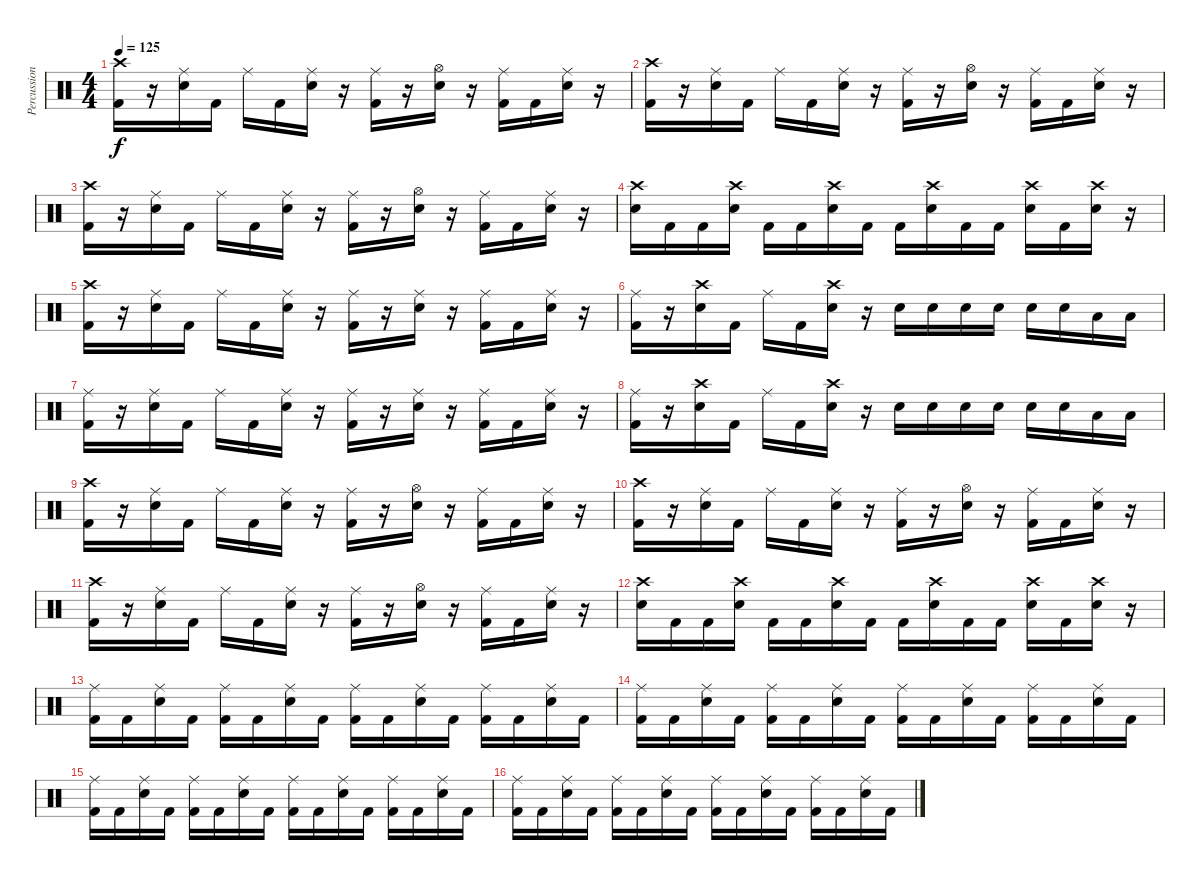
\track ("Percussion" "Percussion") {instrument percussion}
\staff {score}
\articulation defaults
\ts (4 4)
\tempo 125
\clef neutral
\ks c
("Kick (hit) 2" "Crash high (hit)").16{dy f} r.16 ("Snare (hit) 2" "Ride (middle)").16 "Kick (hit) 2".16 "Ride (middle)".16 "Kick (hit) 2".16 ("Snare (hit) 2" "Ride (middle)").16 r.16 ("Kick (hit) 2" "Ride (middle)").16 r.16 ("Snare (hit) 2" "Hi-Hat (open)").16 r.16 ("Kick (hit) 2" "Ride (middle)").16 "Kick (hit) 2".16 ("Snare (hit) 2" "Ride (middle)").16 r.16 |
("Kick (hit) 2" "Crash high (hit)").16 r.16 ("Snare (hit) 2" "Ride (middle)").16 "Kick (hit) 2".16 "Ride (middle)".16 "Kick (hit) 2".16 ("Snare (hit) 2" "Ride (middle)").16 r.16 ("Kick (hit) 2" "Ride (middle)").16 r.16 ("Snare (hit) 2" "Hi-Hat (open)").16 r.16 ("Kick (hit) 2" "Ride (middle)").16 "Kick (hit) 2".16 ("Snare (hit) 2" "Ride (middle)").16 r.16 |
("Kick (hit) 2" "Crash high (hit)").16 r.16 ("Snare (hit) 2" "Ride (middle)").16 "Kick (hit) 2".16 "Ride (middle)".16 "Kick (hit) 2".16 ("Snare (hit) 2" "Ride (middle)").16 r.16 ("Kick (hit) 2" "Ride (middle)").16 r.16 ("Snare (hit) 2" "Hi-Hat (open)").16 r.16 ("Kick (hit) 2" "Ride (middle)").16 "Kick (hit) 2".16 ("Snare (hit) 2" "Ride (middle)").16 r.16 |
("Snare (hit) 2" "Crash high (hit)").16 "Kick (hit) 2".16 "Kick (hit) 2".16 ("Snare (hit) 2" "Crash high (hit)").16 "Kick (hit) 2".16 "Kick (hit) 2".16 ("Snare (hit) 2" "Crash high (hit)").16 "Kick (hit) 2".16 "Kick (hit) 2".16 ("Snare (hit) 2" "Crash high (hit)").16 "Kick (hit) 2".16 "Kick (hit) 2".16 ("Snare (hit) 2" "Crash high (hit)").16 "Kick (hit) 2".16 ("Snare (hit) 2" "Crash high (hit)").16 r.16 |
("Kick (hit) 2" "Crash high (hit)").16 r.16 ("Snare (hit) 2" "Ride (middle)").16 "Kick (hit) 2".16 "Ride (middle)".16 "Kick (hit) 2".16 ("Snare (hit) 2" "Ride (middle)").16 r.16 ("Kick (hit) 2" "Ride (middle)").16 r.16 ("Snare (hit) 2" "Ride (middle)").16 r.16 ("Kick (hit) 2" "Ride (middle)").16 "Kick (hit) 2".16 ("Snare (hit) 2" "Ride (middle)").16 r.16 |
("Kick (hit) 2" "Ride (middle)").16 r.16 ("Snare (hit) 2" "Crash high (hit)").16 "Kick (hit) 2".16 "Ride (middle)".16 "Kick (hit) 2".16 ("Snare (hit) 2" "Crash high (hit)").16 r.16 "Snare (hit) 2".16 "Snare (hit) 2".16 "Snare (hit) 2".16 "Snare (hit) 2".16 "Snare (hit) 2".16 "Snare (hit) 2".16 "Low Tom (hit)".16 "Low Tom (hit)".16 |
("Kick (hit) 2" "Ride (middle)").16 r.16 ("Snare (hit) 2" "Ride (middle)").16 "Kick (hit) 2".16 "Ride (middle)".16 "Kick (hit) 2".16 ("Snare (hit) 2" "Ride (middle)").16 r.16 ("Kick (hit) 2" "Ride (middle)").16 r.16 ("Snare (hit) 2" "Ride (middle)").16 r.16 ("Kick (hit) 2" "Ride (middle)").16 "Kick (hit) 2".16 ("Snare (hit) 2" "Ride (middle)").16 r.16 |
("Kick (hit) 2" "Ride (middle)").16 r.16 ("Snare (hit) 2" "Crash high (hit)").16 "Kick (hit) 2".16 "Ride (middle)".16 "Kick (hit) 2".16 ("Snare (hit) 2" "Crash high (hit)").16 r.16 "Snare (hit) 2".16 "Snare (hit) 2".16 "Snare (hit) 2".16 "Snare (hit) 2".16 "Snare (hit) 2".16 "Snare (hit) 2".16 "Low Tom (hit)".16 "Low Tom (hit)".16 |
("Kick (hit) 2" "Crash high (hit)").16 r.16 ("Snare (hit) 2" "Ride (middle)").16 "Kick (hit) 2".16 "Ride (middle)".16 "Kick (hit) 2".16 ("Snare (hit) 2" "Ride (middle)").16 r.16 ("Kick (hit) 2" "Ride (middle)").16 r.16 ("Snare (hit) 2" "Hi-Hat (open)").16 r.16 ("Kick (hit) 2" "Ride (middle)").16 "Kick (hit) 2".16 ("Snare (hit) 2" "Ride (middle)").16 r.16 |
("Kick (hit) 2" "Crash high (hit)").16 r.16 ("Snare (hit) 2" "Ride (middle)").16 "Kick (hit) 2".16 "Ride (middle)".16 "Kick (hit) 2".16 ("Snare (hit) 2" "Ride (middle)").16 r.16 ("Kick (hit) 2" "Ride (middle)").16 r.16 ("Snare (hit) 2" "Hi-Hat (open)").16 r.16 ("Kick (hit) 2" "Ride (middle)").16 "Kick (hit) 2".16 ("Snare (hit) 2" "Ride (middle)").16 r.16 |
("Kick (hit) 2" "Crash high (hit)").16 r.16 ("Snare (hit) 2" "Ride (middle)").16 "Kick (hit) 2".16 "Ride (middle)".16 "Kick (hit) 2".16 ("Snare (hit) 2" "Ride (middle)").16 r.16 ("Kick (hit) 2" "Ride (middle)").16 r.16 ("Snare (hit) 2" "Hi-Hat (open)").16 r.16 ("Kick (hit) 2" "Ride (middle)").16 "Kick (hit) 2".16 ("Snare (hit) 2" "Ride (middle)").16 r.16 |
("Snare (hit) 2" "Crash high (hit)").16 "Kick (hit) 2".16 "Kick (hit) 2".16 ("Snare (hit) 2" "Crash high (hit)").16 "Kick (hit) 2".16 "Kick (hit) 2".16 ("Snare (hit) 2" "Crash high (hit)").16 "Kick (hit) 2".16 "Kick (hit) 2".16 ("Snare (hit) 2" "Crash high (hit)").16 "Kick (hit) 2".16 "Kick (hit) 2".16 ("Snare (hit) 2" "Crash high (hit)").16 "Kick (hit) 2".16 ("Snare (hit) 2" "Crash high (hit)").16 r.16 |
("Kick (hit) 2" "Ride (middle)").16 "Kick (hit) 2".16 ("Snare (hit) 2" "Ride (middle)").16 "Kick (hit) 2".16 ("Kick (hit) 2" "Ride (middle)").16 "Kick (hit) 2".16 ("Snare (hit) 2" "Ride (middle)").16 "Kick (hit) 2".16 ("Kick (hit) 2" "Ride (middle)").16 "Kick (hit) 2".16 ("Snare (hit) 2" "Ride (middle)").16 "Kick (hit) 2".16 ("Kick (hit) 2" "Ride (middle)").16 "Kick (hit) 2".16 ("Snare (hit) 2" "Ride (middle)").16 "Kick (hit) 2".16 |
("Kick (hit) 2" "Ride (middle)").16 "Kick (hit) 2".16 ("Snare (hit) 2" "Ride (middle)").16 "Kick (hit) 2".16 ("Kick (hit) 2" "Ride (middle)").16 "Kick (hit) 2".16 ("Snare (hit) 2" "Ride (middle)").16 "Kick (hit) 2".16 ("Kick (hit) 2" "Ride (middle)").16 "Kick (hit) 2".16 ("Snare (hit) 2" "Ride (middle)").16 "Kick (hit) 2".16 ("Kick (hit) 2" "Ride (middle)").16 "Kick (hit) 2".16 ("Snare (hit) 2" "Ride (middle)").16 "Kick (hit) 2".16 |
("Kick (hit) 2" "Ride (middle)").16 "Kick (hit) 2".16 ("Snare (hit) 2" "Ride (middle)").16 "Kick (hit) 2".16 ("Kick (hit) 2" "Ride (middle)").16 "Kick (hit) 2".16 ("Snare (hit) 2" "Ride (middle)").16 "Kick (hit) 2".16 ("Kick (hit) 2" "Ride (middle)").16 "Kick (hit) 2".16 ("Snare (hit) 2" "Ride (middle)").16 "Kick (hit) 2".16 ("Kick (hit) 2" "Ride (middle)").16 "Kick (hit) 2".16 ("Snare (hit) 2" "Ride (middle)").16 "Kick (hit) 2".16 |
("Kick (hit) 2" "Ride (middle)").16 "Kick (hit) 2".16 ("Snare (hit) 2" "Ride (middle)").16 "Kick (hit) 2".16 ("Kick (hit) 2" "Ride (middle)").16 "Kick (hit) 2".16 ("Snare (hit) 2" "Ride (middle)").16 "Kick (hit) 2".16 ("Kick (hit) 2" "Ride (middle)").16 "Kick (hit) 2".16 ("Snare (hit) 2" "Ride (middle)").16 "Kick (hit) 2".16 ("Kick (hit) 2" "Ride (middle)").16 "Kick (hit) 2".16 ("Snare (hit) 2" "Ride (middle)").16 "Kick (hit) 2".16
